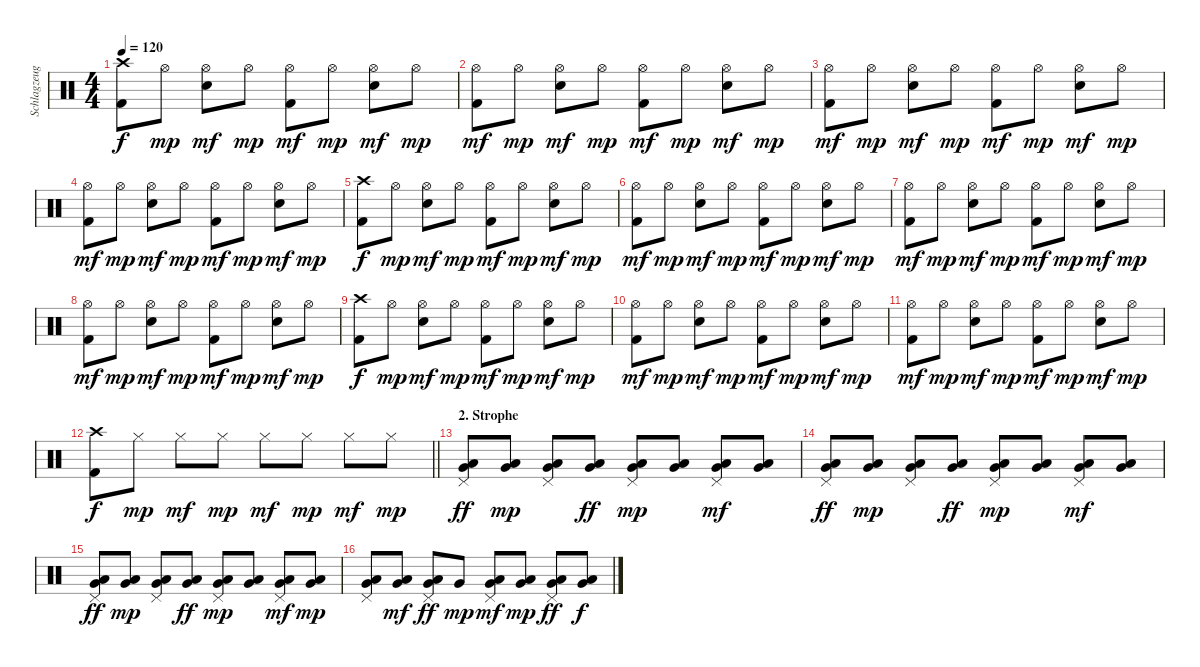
\track ("Schlagzeug" "Schlagzeug") {instrument percussion}
\staff {score}
\articulation defaults
\ts (4 4)
\tempo 120
\clef neutral
\ks c
("Crash high (hit)" "Kick (hit) 2").8{dy f} "Hi-Hat (open)".8{dy mp} ("Hi-Hat (open)" "Electric Snare (hit)").8{dy mf} "Hi-Hat (open)".8{dy mp} ("Hi-Hat (open)" "Kick (hit) 2").8{dy mf} "Hi-Hat (open)".8{dy mp} ("Hi-Hat (open)" "Electric Snare (hit)").8{dy mf} "Hi-Hat (open)".8{dy mp} |
("Hi-Hat (open)" "Kick (hit) 2").8{dy mf} "Hi-Hat (open)".8{dy mp} ("Hi-Hat (open)" "Electric Snare (hit)").8{dy mf} "Hi-Hat (open)".8{dy mp} ("Hi-Hat (open)" "Kick (hit) 2").8{dy mf} "Hi-Hat (open)".8{dy mp} ("Hi-Hat (open)" "Electric Snare (hit)").8{dy mf} "Hi-Hat (open)".8{dy mp} |
("Hi-Hat (open)" "Kick (hit) 2").8{dy mf} "Hi-Hat (open)".8{dy mp} ("Hi-Hat (open)" "Electric Snare (hit)").8{dy mf} "Hi-Hat (open)".8{dy mp} ("Hi-Hat (open)" "Kick (hit) 2").8{dy mf} "Hi-Hat (open)".8{dy mp} ("Hi-Hat (open)" "Electric Snare (hit)").8{dy mf} "Hi-Hat (open)".8{dy mp} |
("Hi-Hat (open)" "Kick (hit) 2").8{dy mf} "Hi-Hat (open)".8{dy mp} ("Hi-Hat (open)" "Electric Snare (hit)").8{dy mf} "Hi-Hat (open)".8{dy mp} ("Hi-Hat (open)" "Kick (hit) 2").8{dy mf} "Hi-Hat (open)".8{dy mp} ("Hi-Hat (open)" "Electric Snare (hit)").8{dy mf} "Hi-Hat (open)".8{dy mp} |
("Crash high (hit)" "Kick (hit) 2").8{dy f} "Hi-Hat (open)".8{dy mp} ("Hi-Hat (open)" "Electric Snare (hit)").8{dy mf} "Hi-Hat (open)".8{dy mp} ("Hi-Hat (open)" "Kick (hit) 2").8{dy mf} "Hi-Hat (open)".8{dy mp} ("Hi-Hat (open)" "Electric Snare (hit)").8{dy mf} "Hi-Hat (open)".8{dy mp} |
("Hi-Hat (open)" "Kick (hit) 2").8{dy mf} "Hi-Hat (open)".8{dy mp} ("Hi-Hat (open)" "Electric Snare (hit)").8{dy mf} "Hi-Hat (open)".8{dy mp} ("Hi-Hat (open)" "Kick (hit) 2").8{dy mf} "Hi-Hat (open)".8{dy mp} ("Hi-Hat (open)" "Electric Snare (hit)").8{dy mf} "Hi-Hat (open)".8{dy mp} |
("Hi-Hat (open)" "Kick (hit) 2").8{dy mf} "Hi-Hat (open)".8{dy mp} ("Hi-Hat (open)" "Electric Snare (hit)").8{dy mf} "Hi-Hat (open)".8{dy mp} ("Hi-Hat (open)" "Kick (hit) 2").8{dy mf} "Hi-Hat (open)".8{dy mp} ("Hi-Hat (open)" "Electric Snare (hit)").8{dy mf} "Hi-Hat (open)".8{dy mp} |
("Hi-Hat (open)" "Kick (hit) 2").8{dy mf} "Hi-Hat (open)".8{dy mp} ("Hi-Hat (open)" "Electric Snare (hit)").8{dy mf} "Hi-Hat (open)".8{dy mp} ("Hi-Hat (open)" "Kick (hit) 2").8{dy mf} "Hi-Hat (open)".8{dy mp} ("Hi-Hat (open)" "Electric Snare (hit)").8{dy mf} "Hi-Hat (open)".8{dy mp} |
("Crash high (hit)" "Kick (hit) 2").8{dy f} "Hi-Hat (open)".8{dy mp} ("Hi-Hat (open)" "Electric Snare (hit)").8{dy mf} "Hi-Hat (open)".8{dy mp} ("Hi-Hat (open)" "Kick (hit) 2").8{dy mf} "Hi-Hat (open)".8{dy mp} ("Hi-Hat (open)" "Electric Snare (hit)").8{dy mf} "Hi-Hat (open)".8{dy mp} |
("Hi-Hat (open)" "Kick (hit) 2").8{dy mf} "Hi-Hat (open)".8{dy mp} ("Hi-Hat (open)" "Electric Snare (hit)").8{dy mf} "Hi-Hat (open)".8{dy mp} ("Hi-Hat (open)" "Kick (hit) 2").8{dy mf} "Hi-Hat (open)".8{dy mp} ("Hi-Hat (open)" "Electric Snare (hit)").8{dy mf} "Hi-Hat (open)".8{dy mp} |
("Hi-Hat (open)" "Kick (hit) 2").8{dy mf} "Hi-Hat (open)".8{dy mp} ("Hi-Hat (open)" "Electric Snare (hit)").8{dy mf} "Hi-Hat (open)".8{dy mp} ("Hi-Hat (open)" "Kick (hit) 2").8{dy mf} "Hi-Hat (open)".8{dy mp} ("Hi-Hat (open)" "Electric Snare (hit)").8{dy mf} "Hi-Hat (open)".8{dy mp} |
\barLineRight lightlight
("Crash high (hit)" "Kick (hit) 2").8{dy f} "Hi-Hat (closed)".8{dy mp} "Hi-Hat (closed)".8{dy mf} "Hi-Hat (closed)".8{dy mp} "Hi-Hat (closed)".8{dy mf} "Hi-Hat (closed)".8{dy mp} "Hi-Hat (closed)".8{dy mf} "Hi-Hat (closed)".8{dy mp} |
\section ("" "2. Strophe")
("Pedal Hi-Hat (hit)" "Very Low Tom (hit)" "Low Floor Tom (hit)").8{dy ff} ("Very Low Tom (hit)" "Low Floor Tom (hit)").8{dy mp} ("Pedal Hi-Hat (hit)" "Very Low Tom (hit)" "Low Floor Tom (hit)").8 ("Very Low Tom (hit)" "Low Floor Tom (hit)").8{dy ff} ("Pedal Hi-Hat (hit)" "Very Low Tom (hit)" "Low Floor Tom (hit)").8{dy mp} ("Very Low Tom (hit)" "Low Floor Tom (hit)").8 ("Pedal Hi-Hat (hit)" "Very Low Tom (hit)" "Low Floor Tom (hit)").8{dy mf} ("Very Low Tom (hit)" "Low Floor Tom (hit)").8 |
("Pedal Hi-Hat (hit)" "Very Low Tom (hit)" "Low Floor Tom (hit)").8{dy ff} ("Very Low Tom (hit)" "Low Floor Tom (hit)").8{dy mp} ("Pedal Hi-Hat (hit)" "Very Low Tom (hit)" "Low Floor Tom (hit)").8 ("Very Low Tom (hit)" "Low Floor Tom (hit)").8{dy ff} ("Pedal Hi-Hat (hit)" "Very Low Tom (hit)" "Low Floor Tom (hit)").8{dy mp} ("Very Low Tom (hit)" "Low Floor Tom (hit)").8 ("Pedal Hi-Hat (hit)" "Very Low Tom (hit)" "Low Floor Tom (hit)").8{dy mf} ("Very Low Tom (hit)" "Low Floor Tom (hit)").8 |
("Pedal Hi-Hat (hit)" "Very Low Tom (hit)" "Low Floor Tom (hit)").8{dy ff} ("Very Low Tom (hit)" "Low Floor Tom (hit)").8{dy mp} ("Pedal Hi-Hat (hit)" "Very Low Tom (hit)" "Low Floor Tom (hit)").8 ("Very Low Tom (hit)" "Low Floor Tom (hit)").8{dy ff} ("Pedal Hi-Hat (hit)" "Very Low Tom (hit)" "Low Floor Tom (hit)").8{dy mp} ("Very Low Tom (hit)" "Low Floor Tom (hit)").8 ("Pedal Hi-Hat (hit)" "Very Low Tom (hit)" "Low Floor Tom (hit)").8{dy mf} ("Very Low Tom (hit)" "Low Floor Tom (hit)").8{dy mp} |
("Pedal Hi-Hat (hit)" "Very Low Tom (hit)" "Low Floor Tom (hit)").8 ("Very Low Tom (hit)" "Low Floor Tom (hit)").8{dy mf} ("Pedal Hi-Hat (hit)" "Very Low Tom (hit)" "Low Floor Tom (hit)").8{dy ff} "Very Low Tom (hit)".8{dy mp} ("Pedal Hi-Hat (hit)" "Very Low Tom (hit)" "Low Floor Tom (hit)").8{dy mf} ("Very Low Tom (hit)" "Low Floor Tom (hit)").8{dy mp} ("Pedal Hi-Hat (hit)" "Very Low Tom (hit)" "Low Floor Tom (hit)").8{dy ff} ("Very Low Tom (hit)" "Low Floor Tom (hit)").8{dy f}
